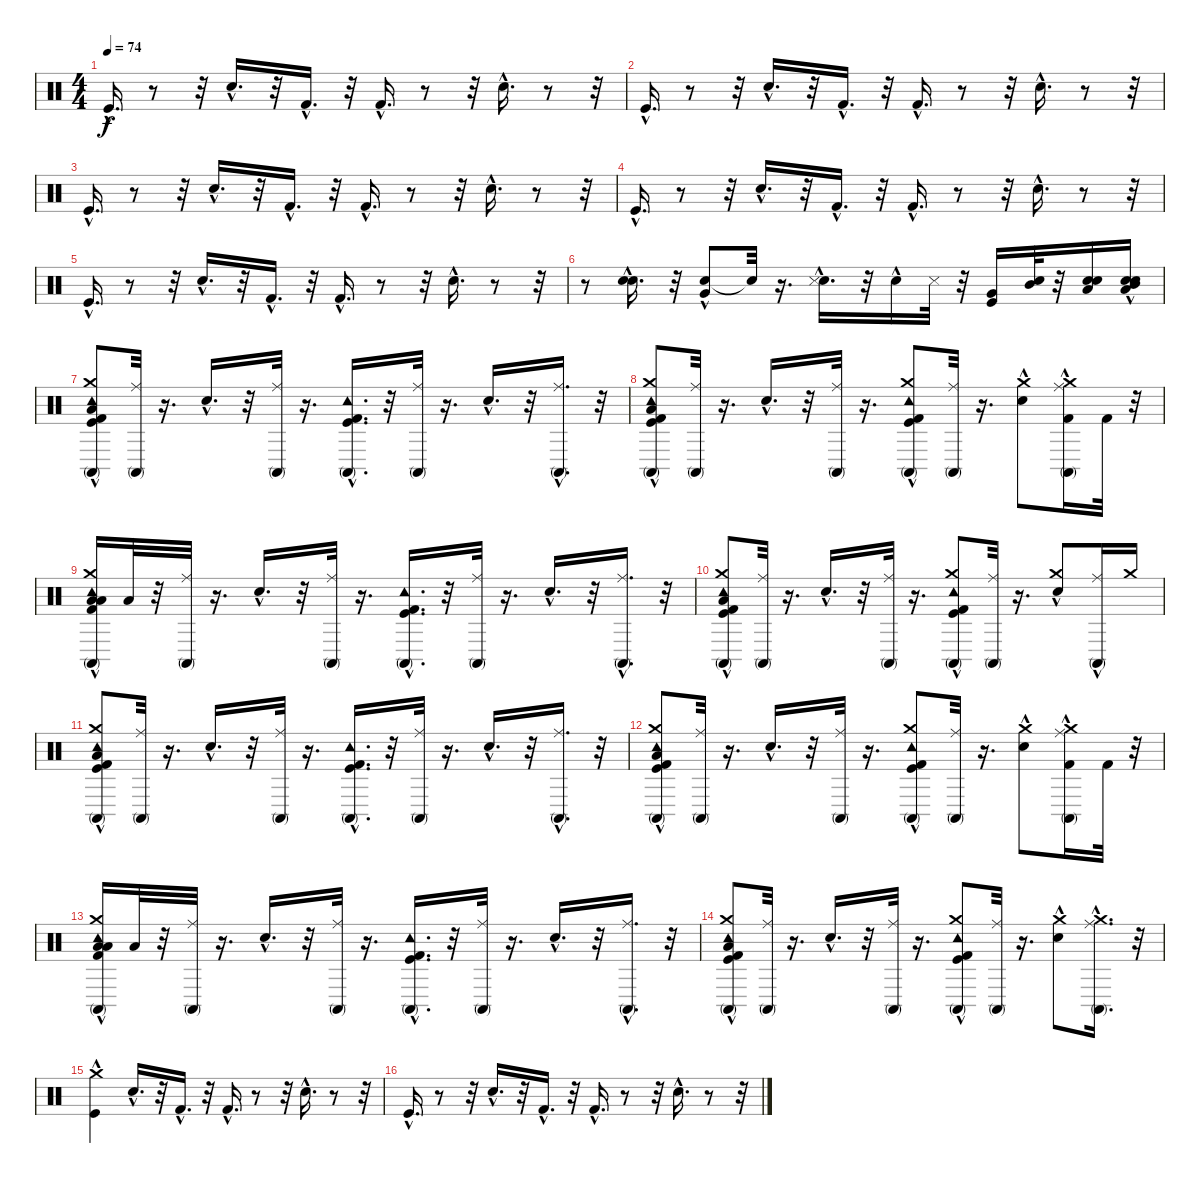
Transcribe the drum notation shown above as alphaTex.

\track "" {instrument percussion}
\staff {score}
\articulation defaults
\ts (4 4)
\tempo 74
\clef neutral
\ks c "Kick (hit)"{hac}.16{d dy f}
r.8 r.32 "Electric Snare (hit)"{hac}.16{d} r.32 "Kick (hit) 2"{hac}.16{d} r.32 "Kick (hit) 2"{hac}.16{d} r.8 r.32 "Electric Snare (hit)"{hac}.16{d} r.8 r.32 |
"Kick (hit)"{hac}.16{d} r.8 r.32 "Electric Snare (hit)"{hac}.16{d} r.32 "Kick (hit) 2"{hac}.16{d} r.32 "Kick (hit) 2"{hac}.16{d} r.8 r.32 "Electric Snare (hit)"{hac}.16{d} r.8 r.32 |
"Kick (hit)"{hac}.16{d} r.8 r.32 "Electric Snare (hit)"{hac}.16{d} r.32 "Kick (hit) 2"{hac}.16{d} r.32 "Kick (hit) 2"{hac}.16{d} r.8 r.32 "Electric Snare (hit)"{hac}.16{d} r.8 r.32 |
"Kick (hit)"{hac}.16{d} r.8 r.32 "Electric Snare (hit)"{hac}.16{d} r.32 "Kick (hit) 2"{hac}.16{d} r.32 "Kick (hit) 2"{hac}.16{d} r.8 r.32 "Electric Snare (hit)"{hac}.16{d} r.8 r.32 |
"Kick (hit)"{hac}.16{d} r.8 r.32 "Electric Snare (hit)"{hac}.16{d} r.32 "Kick (hit) 2"{hac}.16{d} r.32 "Kick (hit) 2"{hac}.16{d} r.8 r.32 "Electric Snare (hit)"{hac}.16{d} r.8 r.32 |
r.8 ("Snare (hit) 2"{hac} "Electric Snare (hit)"{hac}).16{d} r.32 ("Electric Snare (hit)"{hac} "Very Low Tom (hit)").8 "Snare (hit)"{t}.32 r.16{d} ("Electric Snare (hit)"{hac} "Metronome (hit)"{hac}).16{d} r.32 "Electric Snare (hit)"{hac}.16 "Metronome (hit)".32 r.32 ("Kick (hit)" "Very Low Tom (hit)").16 ("Mid Tom (hit)" "Snare (hit) 2").32 r.32 ("Electric Snare (hit)" "Low Floor Tom (hit)" "Snare (hit) 2").16 ("Electric Snare (hit)"{hac} "Mid Tom (hit)" "Low Floor Tom (hit)" "Snare (hit) 2").16 |
("Crash medium (hit)" "Low Floor Tom (hit)" "Conga high (mute)" "Tambourine (hit)"{hac} "Kick (hit) 2"{hac} "Kick (hit)"{hac}).8 ("Conga high (mute)" "Ride (middle)").32 r.16{d} "Snare (hit) 2"{hac}.16{d} r.32 ("Conga high (mute)" "Ride (middle)").32 r.16{d} ("Conga high (mute)" "Tambourine (hit)"{hac} "Kick (hit) 2"{hac} "Kick (hit)"{hac}).16{d} r.32 ("Conga high (mute)" "Ride (middle)").32 r.16{d} "Snare (hit) 2"{hac}.16{d} r.32 ("Conga high (mute)"{hac} "Ride (middle)").16{d} r.32 |
("Crash medium (hit)" "Low Floor Tom (hit)" "Conga high (mute)" "Tambourine (hit)"{hac} "Kick (hit) 2"{hac} "Kick (hit)"{hac}).8 ("Conga high (mute)" "Ride (middle)").32 r.16{d} "Snare (hit) 2"{hac}.16{d} r.32 ("Conga high (mute)" "Ride (middle)").32 r.16{d} ("Crash medium (hit)" "Conga high (mute)" "Tambourine (hit)"{hac} "Kick (hit) 2"{hac} "Kick (hit)").8 ("Conga high (mute)" "Ride (middle)").32 r.16{d} ("Crash medium (hit)" "Snare (hit) 2"{hac}).8 ("Crash medium (hit)" "Kick (hit) 2" "Conga high (mute)"{hac} "Ride (middle)").16 "Kick (hit) 2".32 r.32 |
("Low Tom (hit)" "Crash medium (hit)" "Low Floor Tom (hit)" "Conga high (mute)" "Tambourine (hit)"{hac} "Kick (hit) 2"{hac}).16 "Low Floor Tom (hit)".32 r.32 ("Conga high (mute)" "Ride (middle)").32 r.16{d} "Snare (hit) 2"{hac}.16{d} r.32 ("Conga high (mute)" "Ride (middle)").32 r.16{d} ("Conga high (mute)" "Tambourine (hit)"{hac} "Kick (hit) 2"{hac} "Kick (hit)"{hac}).16{d} r.32 ("Conga high (mute)" "Ride (middle)").32 r.16{d} "Snare (hit) 2"{hac}.16{d} r.32 ("Conga high (mute)"{hac} "Ride (middle)").16{d} r.32 |
("Crash medium (hit)" "Low Floor Tom (hit)" "Conga high (mute)" "Tambourine (hit)"{hac} "Kick (hit) 2"{hac} "Kick (hit)"{hac}).8 ("Conga high (mute)" "Ride (middle)").32 r.16{d} "Snare (hit) 2"{hac}.16{d} r.32 ("Conga high (mute)" "Ride (middle)").32 r.16{d} ("Crash medium (hit)" "Conga high (mute)" "Tambourine (hit)"{hac} "Kick (hit) 2"{hac} "Kick (hit)"{hac}).8 ("Conga high (mute)" "Ride (middle)").32 r.16{d} ("Crash medium (hit)" "Snare (hit) 2"{hac}).8 ("Conga high (mute)"{hac} "Ride (middle)").16 "Crash medium (hit)".16 |
("Crash medium (hit)" "Low Floor Tom (hit)" "Conga high (mute)" "Tambourine (hit)"{hac} "Kick (hit) 2"{hac} "Kick (hit)"{hac}).8 ("Conga high (mute)" "Ride (middle)").32 r.16{d} "Snare (hit) 2"{hac}.16{d} r.32 ("Conga high (mute)" "Ride (middle)").32 r.16{d} ("Conga high (mute)" "Tambourine (hit)"{hac} "Kick (hit) 2"{hac} "Kick (hit)"{hac}).16{d} r.32 ("Conga high (mute)" "Ride (middle)").32 r.16{d} "Snare (hit) 2"{hac}.16{d} r.32 ("Conga high (mute)"{hac} "Ride (middle)").16{d} r.32 |
("Crash medium (hit)" "Low Floor Tom (hit)" "Conga high (mute)" "Tambourine (hit)"{hac} "Kick (hit) 2"{hac} "Kick (hit)"{hac}).8 ("Conga high (mute)" "Ride (middle)").32 r.16{d} "Snare (hit) 2"{hac}.16{d} r.32 ("Conga high (mute)" "Ride (middle)").32 r.16{d} ("Crash medium (hit)" "Conga high (mute)" "Tambourine (hit)"{hac} "Kick (hit) 2"{hac} "Kick (hit)").8 ("Conga high (mute)" "Ride (middle)").32 r.16{d} ("Crash medium (hit)" "Snare (hit) 2"{hac}).8 ("Crash medium (hit)" "Kick (hit) 2" "Conga high (mute)"{hac} "Ride (middle)").16 "Kick (hit) 2".32 r.32 |
("Low Tom (hit)" "Crash medium (hit)" "Low Floor Tom (hit)" "Conga high (mute)" "Tambourine (hit)"{hac} "Kick (hit) 2"{hac}).16 "Low Floor Tom (hit)".32 r.32 ("Conga high (mute)" "Ride (middle)").32 r.16{d} "Snare (hit) 2"{hac}.16{d} r.32 ("Conga high (mute)" "Ride (middle)").32 r.16{d} ("Conga high (mute)" "Tambourine (hit)"{hac} "Kick (hit) 2"{hac} "Kick (hit)"{hac}).16{d} r.32 ("Conga high (mute)" "Ride (middle)").32 r.16{d} "Snare (hit) 2"{hac}.16{d} r.32 ("Conga high (mute)"{hac} "Ride (middle)").16{d} r.32 |
("Crash medium (hit)" "Low Floor Tom (hit)" "Conga high (mute)" "Tambourine (hit)"{hac} "Kick (hit) 2"{hac} "Kick (hit)"{hac}).8 ("Conga high (mute)" "Ride (middle)").32 r.16{d} "Snare (hit) 2"{hac}.16{d} r.32 ("Conga high (mute)" "Ride (middle)").32 r.16{d} ("Crash medium (hit)" "Conga high (mute)" "Tambourine (hit)"{hac} "Kick (hit) 2"{hac} "Kick (hit)"{hac}).8 ("Conga high (mute)" "Ride (middle)").32 r.16{d} ("Crash medium (hit)" "Snare (hit) 2"{hac}).8 ("Crash medium (hit)" "Conga high (mute)"{hac} "Ride (middle)").16{d} r.32 |
("Crash medium (hit)" "Kick (hit)"{hac}).4 "Electric Snare (hit)"{hac}.16{d} r.32 "Kick (hit) 2"{hac}.16{d} r.32 "Kick (hit) 2"{hac}.16{d} r.8 r.32 "Electric Snare (hit)"{hac}.16{d} r.8 r.32 |
"Kick (hit)"{hac}.16{d} r.8 r.32 "Electric Snare (hit)"{hac}.16{d} r.32 "Kick (hit) 2"{hac}.16{d} r.32 "Kick (hit) 2"{hac}.16{d} r.8 r.32 "Electric Snare (hit)"{hac}.16{d} r.8 r.32
